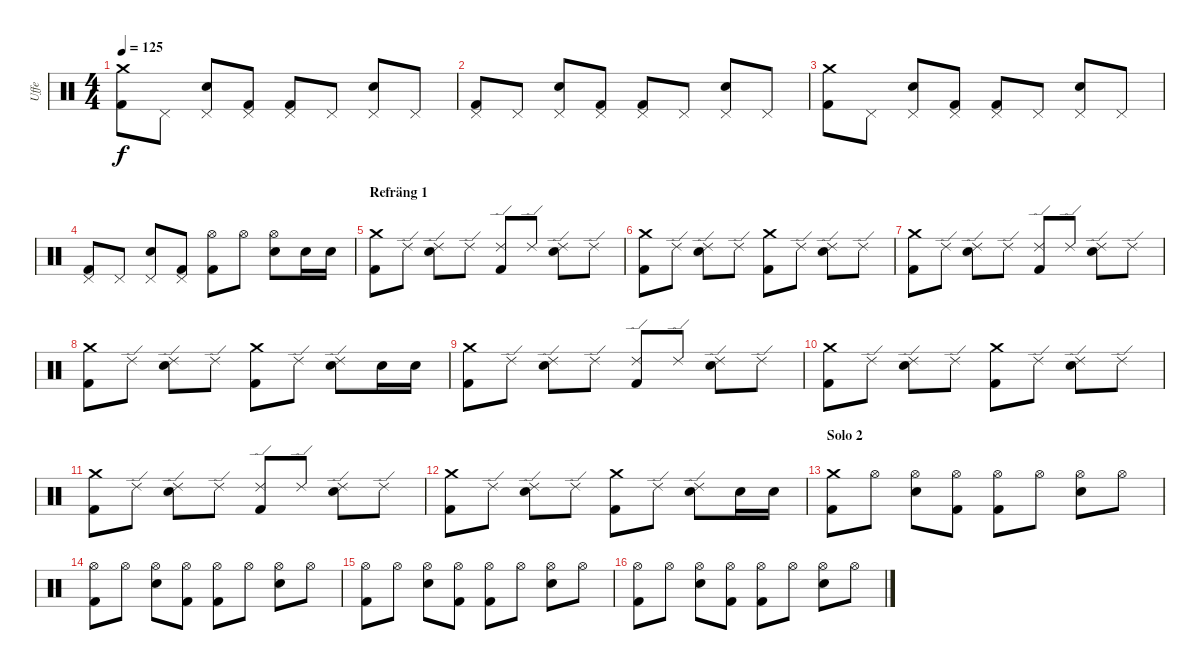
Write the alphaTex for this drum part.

\track ("Uffe" "Uffe") {instrument percussion}
\staff {score}
\articulation defaults
\ts (4 4)
\tempo 125
\clef neutral
\ks c
("Crash medium (hit)" "Kick (hit) 2").8{dy f} "Pedal Hi-Hat (hit)".8 ("Pedal Hi-Hat (hit)" "Electric Snare (hit)").8 ("Pedal Hi-Hat (hit)" "Kick (hit) 2").8 ("Pedal Hi-Hat (hit)" "Kick (hit) 2").8 "Pedal Hi-Hat (hit)".8 ("Pedal Hi-Hat (hit)" "Electric Snare (hit)").8 "Pedal Hi-Hat (hit)".8 |
("Pedal Hi-Hat (hit)" "Kick (hit) 2").8 "Pedal Hi-Hat (hit)".8 ("Pedal Hi-Hat (hit)" "Electric Snare (hit)").8 ("Pedal Hi-Hat (hit)" "Kick (hit) 2").8 ("Pedal Hi-Hat (hit)" "Kick (hit) 2").8 "Pedal Hi-Hat (hit)".8 ("Pedal Hi-Hat (hit)" "Electric Snare (hit)").8 "Pedal Hi-Hat (hit)".8 |
("Crash medium (hit)" "Kick (hit) 2").8 "Pedal Hi-Hat (hit)".8 ("Pedal Hi-Hat (hit)" "Electric Snare (hit)").8 ("Pedal Hi-Hat (hit)" "Kick (hit) 2").8 ("Pedal Hi-Hat (hit)" "Kick (hit) 2").8 "Pedal Hi-Hat (hit)".8 ("Pedal Hi-Hat (hit)" "Electric Snare (hit)").8 "Pedal Hi-Hat (hit)".8 |
("Pedal Hi-Hat (hit)" "Kick (hit) 2").8 "Pedal Hi-Hat (hit)".8 ("Pedal Hi-Hat (hit)" "Electric Snare (hit)").8 ("Pedal Hi-Hat (hit)" "Kick (hit) 2").8 ("Hi-Hat (open)" "Kick (hit) 2").8 "Hi-Hat (open)".8 ("Hi-Hat (open)" "Electric Snare (hit)").8 "Electric Snare (hit)".16 "Electric Snare (hit)".16 |
\section ("" "Refräng 1")
("Crash medium (hit)" "Kick (hit) 2").8 "Ride (edge) 2".8 ("Ride (edge) 2" "Electric Snare (hit)").8 "Ride (edge) 2".8 ("Ride (edge) 2" "Kick (hit) 2").8 "Ride (edge) 2".8 ("Ride (edge) 2" "Electric Snare (hit)").8 "Ride (edge) 2".8 |
("Crash medium (hit)" "Kick (hit) 2").8 "Ride (edge) 2".8 ("Ride (edge) 2" "Electric Snare (hit)").8 "Ride (edge) 2".8 ("Crash medium (hit)" "Kick (hit) 2").8 "Ride (edge) 2".8 ("Ride (edge) 2" "Electric Snare (hit)").8 "Ride (edge) 2".8 |
("Crash medium (hit)" "Kick (hit) 2").8 "Ride (edge) 2".8 ("Ride (edge) 2" "Electric Snare (hit)").8 "Ride (edge) 2".8 ("Ride (edge) 2" "Kick (hit) 2").8 "Ride (edge) 2".8 ("Ride (edge) 2" "Electric Snare (hit)").8 "Ride (edge) 2".8 |
("Crash medium (hit)" "Kick (hit) 2").8 "Ride (edge) 2".8 ("Ride (edge) 2" "Electric Snare (hit)").8 "Ride (edge) 2".8 ("Crash medium (hit)" "Kick (hit) 2").8 "Ride (edge) 2".8 ("Ride (edge) 2" "Electric Snare (hit)").8 "Electric Snare (hit)".16 "Electric Snare (hit)".16 |
("Crash medium (hit)" "Kick (hit) 2").8 "Ride (edge) 2".8 ("Ride (edge) 2" "Electric Snare (hit)").8 "Ride (edge) 2".8 ("Ride (edge) 2" "Kick (hit) 2").8 "Ride (edge) 2".8 ("Ride (edge) 2" "Electric Snare (hit)").8 "Ride (edge) 2".8 |
("Crash medium (hit)" "Kick (hit) 2").8 "Ride (edge) 2".8 ("Ride (edge) 2" "Electric Snare (hit)").8 "Ride (edge) 2".8 ("Crash medium (hit)" "Kick (hit) 2").8 "Ride (edge) 2".8 ("Ride (edge) 2" "Electric Snare (hit)").8 "Ride (edge) 2".8 |
("Crash medium (hit)" "Kick (hit) 2").8 "Ride (edge) 2".8 ("Ride (edge) 2" "Electric Snare (hit)").8 "Ride (edge) 2".8 ("Ride (edge) 2" "Kick (hit) 2").8 "Ride (edge) 2".8 ("Ride (edge) 2" "Electric Snare (hit)").8 "Ride (edge) 2".8 |
("Crash medium (hit)" "Kick (hit) 2").8 "Ride (edge) 2".8 ("Ride (edge) 2" "Electric Snare (hit)").8 "Ride (edge) 2".8 ("Crash medium (hit)" "Kick (hit) 2").8 "Ride (edge) 2".8 ("Ride (edge) 2" "Electric Snare (hit)").8 "Electric Snare (hit)".16 "Electric Snare (hit)".16 |
\section ("" "Solo 2")
("Crash medium (hit)" "Kick (hit) 2").8 "Hi-Hat (open)".8 ("Hi-Hat (open)" "Electric Snare (hit)").8 ("Hi-Hat (open)" "Kick (hit) 2").8 ("Hi-Hat (open)" "Kick (hit) 2").8 "Hi-Hat (open)".8 ("Hi-Hat (open)" "Electric Snare (hit)").8 "Hi-Hat (open)".8 |
("Hi-Hat (open)" "Kick (hit) 2").8 "Hi-Hat (open)".8 ("Hi-Hat (open)" "Electric Snare (hit)").8 ("Hi-Hat (open)" "Kick (hit) 2").8 ("Hi-Hat (open)" "Kick (hit) 2").8 "Hi-Hat (open)".8 ("Hi-Hat (open)" "Electric Snare (hit)").8 "Hi-Hat (open)".8 |
("Hi-Hat (open)" "Kick (hit) 2").8 "Hi-Hat (open)".8 ("Hi-Hat (open)" "Electric Snare (hit)").8 ("Hi-Hat (open)" "Kick (hit) 2").8 ("Hi-Hat (open)" "Kick (hit) 2").8 "Hi-Hat (open)".8 ("Hi-Hat (open)" "Electric Snare (hit)").8 "Hi-Hat (open)".8 |
("Hi-Hat (open)" "Kick (hit) 2").8 "Hi-Hat (open)".8 ("Hi-Hat (open)" "Electric Snare (hit)").8 ("Hi-Hat (open)" "Kick (hit) 2").8 ("Hi-Hat (open)" "Kick (hit) 2").8 "Hi-Hat (open)".8 ("Hi-Hat (open)" "Electric Snare (hit)").8 "Hi-Hat (open)".8
